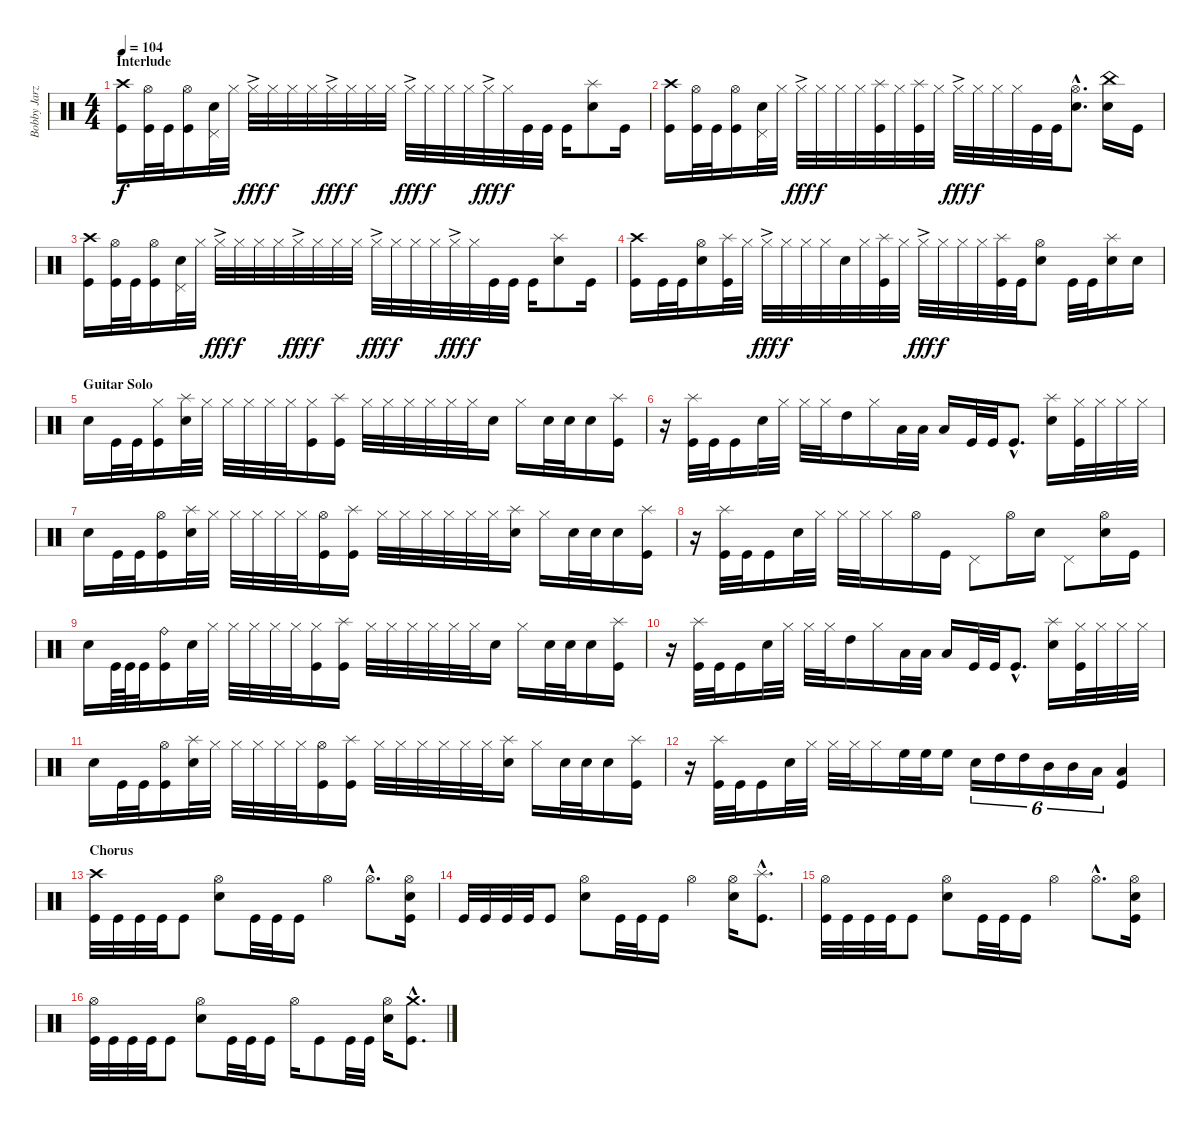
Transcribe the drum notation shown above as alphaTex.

\track ("Bobby Jarzombek" "Bobby Jarz") {instrument percussion}
\staff {score}
\articulation defaults
\ts (4 4)
\section ("" "Interlude")
\tempo 104
\clef neutral
\ks c
("Crash high (hit)" "Kick (hit)").16{dy f} ("Hi-Hat (open)" "Kick (hit)").32 "Kick (hit)".32 ("Hi-Hat (open)" "Kick (hit)").16 ("Electric Snare (hit)" "Pedal Hi-Hat (hit)").32 "Hi-Hat (closed)".32 "Hi-Hat (closed)"{ac}.32{dy fff} "Hi-Hat (closed)".32{dy f} "Hi-Hat (closed)".32 "Hi-Hat (closed)".32 "Hi-Hat (closed)"{ac}.32{dy fff} "Hi-Hat (closed)".32{dy f} "Hi-Hat (closed)".32 "Hi-Hat (closed)".32 "Hi-Hat (closed)"{ac}.32{dy fff} "Hi-Hat (closed)".32{dy f} "Hi-Hat (closed)".32 "Hi-Hat (closed)".32 "Hi-Hat (closed)"{ac}.32{dy fff} "Hi-Hat (closed)".32{dy f} "Kick (hit)".32 "Kick (hit)".32 "Kick (hit)".16 ("Splash (hit)" "Electric Snare (hit)").8 "Kick (hit)".16 |
("Crash high (hit)" "Kick (hit)").16 ("Hi-Hat (open)" "Kick (hit)").32 "Kick (hit)".32 ("Hi-Hat (open)" "Kick (hit)").16 ("Electric Snare (hit)" "Pedal Hi-Hat (hit)").32 "Hi-Hat (closed)".32 "Hi-Hat (closed)"{ac}.32{dy fff} "Hi-Hat (closed)".32{dy f} "Hi-Hat (closed)".32 "Hi-Hat (closed)".32 ("Splash (hit)" "Kick (hit)").32 "Hi-Hat (closed)".32 ("Splash (hit)" "Kick (hit)").32 "Hi-Hat (closed)".32 "Hi-Hat (closed)"{ac}.32{dy fff} "Hi-Hat (closed)".32{dy f} "Hi-Hat (closed)".32 "Hi-Hat (closed)".32 "Kick (hit)".32 "Kick (hit)".32 ("Hi-Hat (open)"{hac} "Electric Snare (hit)"{hac}).8{d} ("China (hit)" "Electric Snare (hit)").16 "Kick (hit)".16 |
("Crash high (hit)" "Kick (hit)").16 ("Hi-Hat (open)" "Kick (hit)").32 "Kick (hit)".32 ("Hi-Hat (open)" "Kick (hit)").16 ("Electric Snare (hit)" "Pedal Hi-Hat (hit)").32 "Hi-Hat (closed)".32 "Hi-Hat (closed)"{ac}.32{dy fff} "Hi-Hat (closed)".32{dy f} "Hi-Hat (closed)".32 "Hi-Hat (closed)".32 "Hi-Hat (closed)"{ac}.32{dy fff} "Hi-Hat (closed)".32{dy f} "Hi-Hat (closed)".32 "Hi-Hat (closed)".32 "Hi-Hat (closed)"{ac}.32{dy fff} "Hi-Hat (closed)".32{dy f} "Hi-Hat (closed)".32 "Hi-Hat (closed)".32 "Hi-Hat (closed)"{ac}.32{dy fff} "Hi-Hat (closed)".32{dy f} "Kick (hit)".32 "Kick (hit)".32 "Kick (hit)".16 ("Splash (hit)" "Electric Snare (hit)").8 "Kick (hit)".16 |
("Crash high (hit)" "Kick (hit)").16 "Kick (hit)".32 "Kick (hit)".32 ("Hi-Hat (open)" "Electric Snare (hit)").16 ("Splash (hit)" "Kick (hit)").32 "Hi-Hat (closed)".32 "Hi-Hat (closed)"{ac}.32{dy fff} "Hi-Hat (closed)".32{dy f} "Hi-Hat (closed)".32 "Hi-Hat (closed)".32 "Electric Snare (hit)".32 "Hi-Hat (closed)".32 ("Splash (hit)" "Kick (hit)").32 "Hi-Hat (closed)".32 "Hi-Hat (closed)"{ac}.32{dy fff} "Hi-Hat (closed)".32{dy f} "Hi-Hat (closed)".32 "Hi-Hat (closed)".32 ("Splash (hit)" "Kick (hit)").32 "Kick (hit)".32 ("Hi-Hat (open)" "Electric Snare (hit)").8 "Kick (hit)".32 "Kick (hit)".32 ("Splash (hit)" "Electric Snare (hit)").16 "Electric Snare (hit)".16 |
\section ("" "Guitar Solo")
"Electric Snare (hit)".16 "Kick (hit)".32 "Kick (hit)".32 ("Hi-Hat (closed)" "Kick (hit)").16 ("Splash (hit)" "Electric Snare (hit)").32 "Hi-Hat (closed)".32 "Hi-Hat (closed)".32 "Hi-Hat (closed)".32 "Hi-Hat (closed)".32 "Hi-Hat (closed)".32 ("Hi-Hat (closed)" "Kick (hit)").16 ("Splash (hit)" "Kick (hit)").16 "Hi-Hat (closed)".32 "Hi-Hat (closed)".32 "Hi-Hat (closed)".32 "Hi-Hat (closed)".32 "Hi-Hat (closed)".32 "Hi-Hat (closed)".32 "Electric Snare (hit)".16 "Hi-Hat (closed)".16 "Electric Snare (hit)".32 "Electric Snare (hit)".32 "Electric Snare (hit)".16 ("Splash (hit)" "Kick (hit)").16 |
r.16 ("Splash (hit)" "Kick (hit)").32 "Kick (hit)".32 "Kick (hit)".16 "Electric Snare (hit)".32 "Hi-Hat (closed)".32 "Hi-Hat (closed)".32 "Hi-Hat (closed)".32 "High Tom (hit)".16 "Hi-Hat (closed)".16 "Low Tom (hit)".32 "Low Tom (hit)".32 "Low Tom (hit)".16 "Kick (hit)".32 "Kick (hit)".32 "Kick (hit)"{hac}.8{d} ("Splash (hit)" "Electric Snare (hit)").16 ("Hi-Hat (closed)" "Kick (hit)").32 "Hi-Hat (closed)".32 "Hi-Hat (closed)".32 "Hi-Hat (closed)".32 |
"Electric Snare (hit)".16 "Kick (hit)".32 "Kick (hit)".32 ("Hi-Hat (open)" "Kick (hit)").16 ("Splash (hit)" "Electric Snare (hit)").32 "Hi-Hat (closed)".32 "Hi-Hat (closed)".32 "Hi-Hat (closed)".32 "Hi-Hat (closed)".32 "Hi-Hat (closed)".32 ("Hi-Hat (open)" "Kick (hit)").16 ("Splash (hit)" "Kick (hit)").16 "Hi-Hat (closed)".32 "Hi-Hat (closed)".32 "Hi-Hat (closed)".32 "Hi-Hat (closed)".32 "Hi-Hat (closed)".32 "Hi-Hat (closed)".32 ("Splash (hit)" "Electric Snare (hit)").16 "Hi-Hat (closed)".16 "Electric Snare (hit)".32 "Electric Snare (hit)".32 "Electric Snare (hit)".16 ("Splash (hit)" "Kick (hit)").16 |
r.16 ("Splash (hit)" "Kick (hit)").32 "Kick (hit)".32 "Kick (hit)".16 "Electric Snare (hit)".32 "Hi-Hat (closed)".32 "Hi-Hat (closed)".32 "Hi-Hat (closed)".32 "Hi-Hat (closed)".16 "Hi-Hat (open)".16 "Kick (hit)".16 "Pedal Hi-Hat (hit)".8 "Hi-Hat (open)".16 "Electric Snare (hit)".16 "Pedal Hi-Hat (hit)".8 ("Hi-Hat (open)" "Electric Snare (hit)").16 "Kick (hit)".16 |
"Electric Snare (hit)".16 "Kick (hit)".64 "Kick (hit)".64 "Kick (hit)".32 ("Ride (bell)" "Kick (hit)").16 "Electric Snare (hit)".32 "Hi-Hat (closed)".32 "Hi-Hat (closed)".32 "Hi-Hat (closed)".32 "Hi-Hat (closed)".32 "Hi-Hat (closed)".32 ("Hi-Hat (closed)" "Kick (hit)").16 ("Splash (hit)" "Kick (hit)").16 "Hi-Hat (closed)".32 "Hi-Hat (closed)".32 "Hi-Hat (closed)".32 "Hi-Hat (closed)".32 "Hi-Hat (closed)".32 "Hi-Hat (closed)".32 "Electric Snare (hit)".16 "Hi-Hat (closed)".16 "Electric Snare (hit)".32 "Electric Snare (hit)".32 "Electric Snare (hit)".16 ("Splash (hit)" "Kick (hit)").16 |
r.16 ("Splash (hit)" "Kick (hit)").32 "Kick (hit)".32 "Kick (hit)".16 "Electric Snare (hit)".32 "Hi-Hat (closed)".32 "Hi-Hat (closed)".32 "Hi-Hat (closed)".32 "High Tom (hit)".16 "Hi-Hat (closed)".16 "Low Tom (hit)".32 "Low Tom (hit)".32 "Low Tom (hit)".16 "Kick (hit)".32 "Kick (hit)".32 "Kick (hit)"{hac}.8{d} ("Splash (hit)" "Electric Snare (hit)").16 ("Hi-Hat (closed)" "Kick (hit)").32 "Hi-Hat (closed)".32 "Hi-Hat (closed)".32 "Hi-Hat (closed)".32 |
"Electric Snare (hit)".16 "Kick (hit)".32 "Kick (hit)".32 ("Hi-Hat (open)" "Kick (hit)").16 ("Splash (hit)" "Electric Snare (hit)").32 "Hi-Hat (closed)".32 "Hi-Hat (closed)".32 "Hi-Hat (closed)".32 "Hi-Hat (closed)".32 "Hi-Hat (closed)".32 ("Hi-Hat (open)" "Kick (hit)").16 ("Splash (hit)" "Kick (hit)").16 "Hi-Hat (closed)".32 "Hi-Hat (closed)".32 "Hi-Hat (closed)".32 "Hi-Hat (closed)".32 "Hi-Hat (closed)".32 "Hi-Hat (closed)".32 ("Splash (hit)" "Electric Snare (hit)").16 "Hi-Hat (closed)".16 "Electric Snare (hit)".32 "Electric Snare (hit)".32 "Electric Snare (hit)".16 ("Splash (hit)" "Kick (hit)").16 |
r.16 ("Splash (hit)" "Kick (hit)").32 "Kick (hit)".32 "Kick (hit)".16 "Electric Snare (hit)".32 "Hi-Hat (closed)".32 "Hi-Hat (closed)".32 "Hi-Hat (closed)".32 "Hi-Hat (closed)".16 "High Floor Tom (hit)".32 "High Floor Tom (hit)".32 "High Floor Tom (hit)".16 "Electric Snare (hit)".16{tu (6 4)} "High Tom (hit)".16{tu (6 4)} "High Tom (hit)".16{tu (6 4)} "Mid Tom (hit)".16{tu (6 4)} "Mid Tom (hit)".16{tu (6 4)} "Low Tom (hit)".16{tu (6 4)} ("Low Tom (hit)" "Kick (hit)").4 |
\section ("" "Chorus")
("Crash high (hit)" "Kick (hit)").32 "Kick (hit)".32 "Kick (hit)".32 "Kick (hit)".32 "Kick (hit)".8 ("Hi-Hat (open)" "Electric Snare (hit)").8 "Kick (hit)".32 "Kick (hit)".32 "Kick (hit)".16 "Hi-Hat (open)".4 "Hi-Hat (open)"{hac}.8{d} ("Hi-Hat (open)" "Electric Snare (hit)" "Kick (hit)").16 |
"Kick (hit)".32 "Kick (hit)".32 "Kick (hit)".32 "Kick (hit)".32 "Kick (hit)".8 ("Hi-Hat (open)" "Electric Snare (hit)").8 "Kick (hit)".32 "Kick (hit)".32 "Kick (hit)".16 "Hi-Hat (open)".4 ("Hi-Hat (open)" "Electric Snare (hit)").16 ("Splash (hit)"{hac} "Kick (hit)"{hac}).8{d} |
("Hi-Hat (open)" "Kick (hit)").32 "Kick (hit)".32 "Kick (hit)".32 "Kick (hit)".32 "Kick (hit)".8 ("Hi-Hat (open)" "Electric Snare (hit)").8 "Kick (hit)".32 "Kick (hit)".32 "Kick (hit)".16 "Hi-Hat (open)".4 "Hi-Hat (open)"{hac}.8{d} ("Hi-Hat (open)" "Electric Snare (hit)" "Kick (hit)").16 |
("Hi-Hat (open)" "Kick (hit)").32 "Kick (hit)".32 "Kick (hit)".32 "Kick (hit)".32 "Kick (hit)".8 ("Hi-Hat (open)" "Electric Snare (hit)").8 "Kick (hit)".32 "Kick (hit)".32 "Kick (hit)".16 "Hi-Hat (open)".16 "Kick (hit)".8 "Kick (hit)".32 "Kick (hit)".32 ("Hi-Hat (open)" "Electric Snare (hit)").16 ("Crash medium (hit)"{hac} "Kick (hit)"{hac}).8{d}
